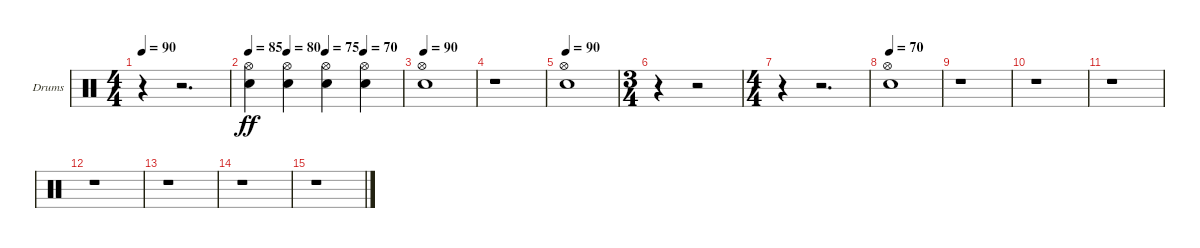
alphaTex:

\bracketExtendMode groupsimilarinstruments
\firstSystemTrackNameOrientation horizontal
\otherSystemsTrackNameOrientation horizontal
\track ("Барабаны" "Drums") {instrument percussion}
\staff {score}
\articulation defaults
\ts (4 4)
\tempo 90
\clef neutral
\ks c
r.4{dy ff} r.2{d} |
\tempo 85
\tempo (80 0.25)
\tempo (75 0.5)
\tempo (70 0.75)
("Hi-Hat (open)" "Snare (hit) 2").4 ("Hi-Hat (open)" "Snare (hit) 2").4 ("Hi-Hat (open)" "Snare (hit) 2").4 ("Hi-Hat (open)" "Snare (hit) 2").4 |
\tempo 90
("Hi-Hat (open)" "Snare (hit) 2").1 |
r.1 |
\tempo 90
("Hi-Hat (open)" "Snare (hit) 2").1 |
\ts (3 4)
\beaming (8 2 2 2)
r.4 r.2 |
\ts (4 4)
\beaming (8 2 2 2 2)
r.4 r.2{d} |
\tempo 70
("Hi-Hat (open)" "Snare (hit) 2").1 |
r.1 |
r.1 |
r.1 |
r.1 |
r.1 |
r.1 |
r.1
